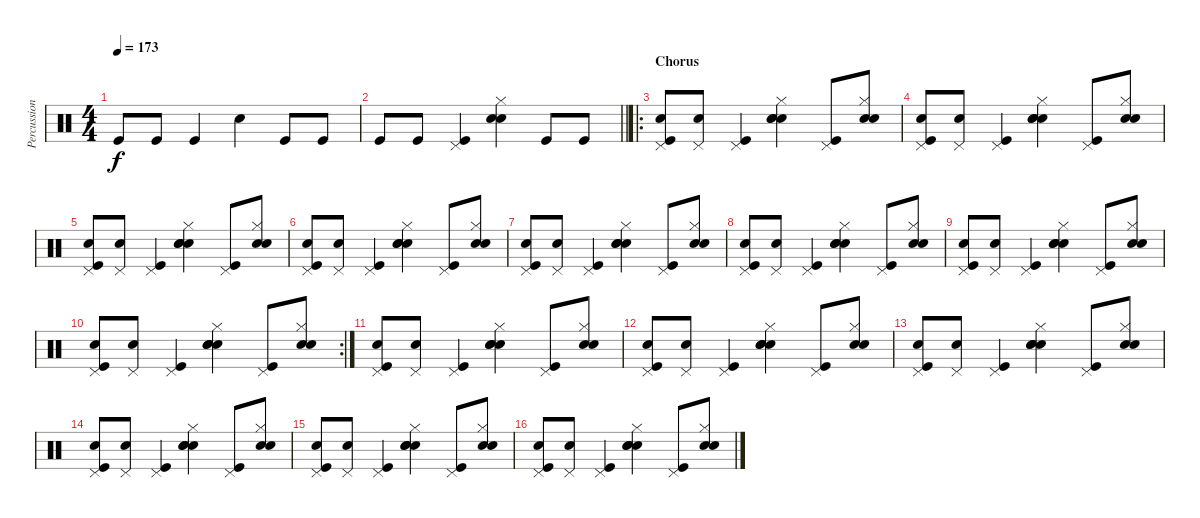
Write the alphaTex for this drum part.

\track ("Percussion" "Percussion") {instrument percussion}
\staff {score}
\articulation defaults
\ts (4 4)
\tempo 173
\clef neutral
\ks c "Kick (hit)".8{dy f} "Kick (hit)".8 "Kick (hit)".4 "Hand Clap (hit)".4 "Kick (hit)".8 "Kick (hit)".8
|
\barLineRight lightlight "Kick (hit)".8 "Kick (hit)".8
("Pedal Hi-Hat (hit)" "Kick (hit)").4 ("Hand Clap (hit)" "Hi-Hat (closed)" "Electric Snare (hit)").4 "Kick (hit)".8 "Kick (hit)".8 |
\ro
\section ("" "Chorus")
("Hand Clap (hit)" "Pedal Hi-Hat (hit)" "Kick (hit)").8 ("Pedal Hi-Hat (hit)" "Electric Snare (hit)").8 ("Pedal Hi-Hat (hit)" "Kick (hit)").4 ("Hand Clap (hit)" "Hand Clap (hit)" "Hi-Hat (closed)" "Electric Snare (hit)").4 ("Pedal Hi-Hat (hit)" "Kick (hit)").8 ("Hand Clap (hit)" "Hi-Hat (closed)" "Electric Snare (hit)").8 |
("Hand Clap (hit)" "Pedal Hi-Hat (hit)" "Kick (hit)").8 ("Pedal Hi-Hat (hit)" "Electric Snare (hit)").8 ("Pedal Hi-Hat (hit)" "Kick (hit)").4 ("Hand Clap (hit)" "Hand Clap (hit)" "Hi-Hat (closed)" "Electric Snare (hit)").4 ("Pedal Hi-Hat (hit)" "Kick (hit)").8 ("Hand Clap (hit)" "Hi-Hat (closed)" "Electric Snare (hit)").8 |
("Hand Clap (hit)" "Pedal Hi-Hat (hit)" "Kick (hit)").8 ("Pedal Hi-Hat (hit)" "Electric Snare (hit)").8 ("Pedal Hi-Hat (hit)" "Kick (hit)").4 ("Hand Clap (hit)" "Hand Clap (hit)" "Hi-Hat (closed)" "Electric Snare (hit)").4 ("Pedal Hi-Hat (hit)" "Kick (hit)").8 ("Hand Clap (hit)" "Hi-Hat (closed)" "Electric Snare (hit)").8 |
("Hand Clap (hit)" "Pedal Hi-Hat (hit)" "Kick (hit)").8 ("Pedal Hi-Hat (hit)" "Electric Snare (hit)").8 ("Pedal Hi-Hat (hit)" "Kick (hit)").4 ("Hand Clap (hit)" "Hand Clap (hit)" "Hi-Hat (closed)" "Electric Snare (hit)").4 ("Pedal Hi-Hat (hit)" "Kick (hit)").8 ("Hand Clap (hit)" "Hi-Hat (closed)" "Electric Snare (hit)").8 |
("Hand Clap (hit)" "Pedal Hi-Hat (hit)" "Kick (hit)").8 ("Pedal Hi-Hat (hit)" "Electric Snare (hit)").8 ("Pedal Hi-Hat (hit)" "Kick (hit)").4 ("Hand Clap (hit)" "Hand Clap (hit)" "Hi-Hat (closed)" "Electric Snare (hit)").4 ("Pedal Hi-Hat (hit)" "Kick (hit)").8 ("Hand Clap (hit)" "Hi-Hat (closed)" "Electric Snare (hit)").8 |
("Hand Clap (hit)" "Pedal Hi-Hat (hit)" "Kick (hit)").8 ("Pedal Hi-Hat (hit)" "Electric Snare (hit)").8 ("Pedal Hi-Hat (hit)" "Kick (hit)").4 ("Hand Clap (hit)" "Hand Clap (hit)" "Hi-Hat (closed)" "Electric Snare (hit)").4 ("Pedal Hi-Hat (hit)" "Kick (hit)").8 ("Hand Clap (hit)" "Hi-Hat (closed)" "Electric Snare (hit)").8 |
("Hand Clap (hit)" "Pedal Hi-Hat (hit)" "Kick (hit)").8 ("Pedal Hi-Hat (hit)" "Electric Snare (hit)").8 ("Pedal Hi-Hat (hit)" "Kick (hit)").4 ("Hand Clap (hit)" "Hand Clap (hit)" "Hi-Hat (closed)" "Electric Snare (hit)").4 ("Pedal Hi-Hat (hit)" "Kick (hit)").8 ("Hand Clap (hit)" "Hi-Hat (closed)" "Electric Snare (hit)").8 |
\rc 2
("Hand Clap (hit)" "Pedal Hi-Hat (hit)" "Kick (hit)").8 ("Pedal Hi-Hat (hit)" "Electric Snare (hit)").8 ("Pedal Hi-Hat (hit)" "Kick (hit)").4 ("Hand Clap (hit)" "Hand Clap (hit)" "Hi-Hat (closed)" "Electric Snare (hit)").4 ("Pedal Hi-Hat (hit)" "Kick (hit)").8 ("Hand Clap (hit)" "Hi-Hat (closed)" "Electric Snare (hit)").8 |
("Hand Clap (hit)" "Pedal Hi-Hat (hit)" "Kick (hit)").8 ("Pedal Hi-Hat (hit)" "Electric Snare (hit)").8 ("Pedal Hi-Hat (hit)" "Kick (hit)").4 ("Hand Clap (hit)" "Hand Clap (hit)" "Hi-Hat (closed)" "Electric Snare (hit)").4 ("Pedal Hi-Hat (hit)" "Kick (hit)").8 ("Hand Clap (hit)" "Hi-Hat (closed)" "Electric Snare (hit)").8 |
("Hand Clap (hit)" "Pedal Hi-Hat (hit)" "Kick (hit)").8 ("Pedal Hi-Hat (hit)" "Electric Snare (hit)").8 ("Pedal Hi-Hat (hit)" "Kick (hit)").4 ("Hand Clap (hit)" "Hand Clap (hit)" "Hi-Hat (closed)" "Electric Snare (hit)").4 ("Pedal Hi-Hat (hit)" "Kick (hit)").8 ("Hand Clap (hit)" "Hi-Hat (closed)" "Electric Snare (hit)").8 |
("Hand Clap (hit)" "Pedal Hi-Hat (hit)" "Kick (hit)").8 ("Pedal Hi-Hat (hit)" "Electric Snare (hit)").8 ("Pedal Hi-Hat (hit)" "Kick (hit)").4 ("Hand Clap (hit)" "Hand Clap (hit)" "Hi-Hat (closed)" "Electric Snare (hit)").4 ("Pedal Hi-Hat (hit)" "Kick (hit)").8 ("Hand Clap (hit)" "Hi-Hat (closed)" "Electric Snare (hit)").8 |
("Hand Clap (hit)" "Pedal Hi-Hat (hit)" "Kick (hit)").8 ("Pedal Hi-Hat (hit)" "Electric Snare (hit)").8 ("Pedal Hi-Hat (hit)" "Kick (hit)").4 ("Hand Clap (hit)" "Hand Clap (hit)" "Hi-Hat (closed)" "Electric Snare (hit)").4 ("Pedal Hi-Hat (hit)" "Kick (hit)").8 ("Hand Clap (hit)" "Hi-Hat (closed)" "Electric Snare (hit)").8 |
("Hand Clap (hit)" "Pedal Hi-Hat (hit)" "Kick (hit)").8 ("Pedal Hi-Hat (hit)" "Electric Snare (hit)").8 ("Pedal Hi-Hat (hit)" "Kick (hit)").4 ("Hand Clap (hit)" "Hand Clap (hit)" "Hi-Hat (closed)" "Electric Snare (hit)").4 ("Pedal Hi-Hat (hit)" "Kick (hit)").8 ("Hand Clap (hit)" "Hi-Hat (closed)" "Electric Snare (hit)").8 |
("Hand Clap (hit)" "Pedal Hi-Hat (hit)" "Kick (hit)").8 ("Pedal Hi-Hat (hit)" "Electric Snare (hit)").8 ("Pedal Hi-Hat (hit)" "Kick (hit)").4 ("Hand Clap (hit)" "Hand Clap (hit)" "Hi-Hat (closed)" "Electric Snare (hit)").4 ("Pedal Hi-Hat (hit)" "Kick (hit)").8 ("Hand Clap (hit)" "Hi-Hat (closed)" "Electric Snare (hit)").8
